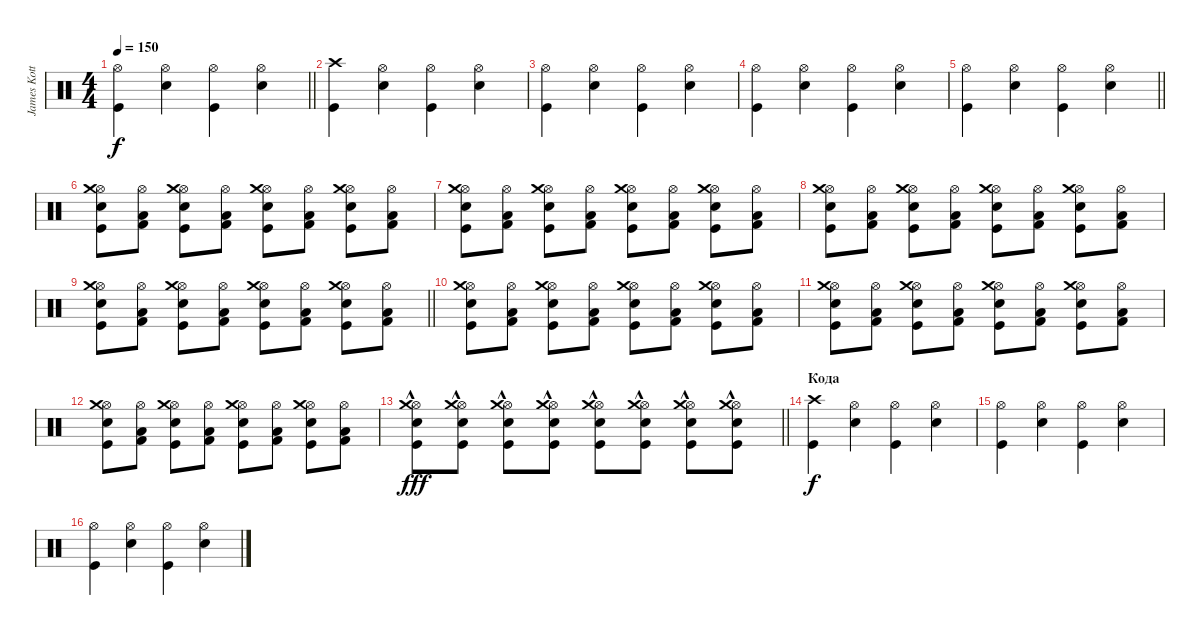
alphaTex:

\track ("James Kottak" "James Kott") {instrument percussion}
\staff {score}
\articulation defaults
\ts (4 4)
\tempo 150
\clef neutral
\barLineRight lightlight
\ks c
("Hi-Hat (open)" "Kick (hit)").4{dy f} ("Hi-Hat (open)" "Snare (hit) 2").4 ("Hi-Hat (open)" "Kick (hit)").4 ("Hi-Hat (open)" "Snare (hit) 2").4 |
("Crash high (hit)" "Kick (hit)").4 ("Hi-Hat (open)" "Snare (hit) 2").4 ("Hi-Hat (open)" "Kick (hit)").4 ("Hi-Hat (open)" "Snare (hit) 2").4 |
("Hi-Hat (open)" "Kick (hit)").4 ("Hi-Hat (open)" "Snare (hit) 2").4 ("Hi-Hat (open)" "Kick (hit)").4 ("Hi-Hat (open)" "Snare (hit) 2").4 |
("Hi-Hat (open)" "Kick (hit)").4 ("Hi-Hat (open)" "Snare (hit) 2").4 ("Hi-Hat (open)" "Kick (hit)").4 ("Hi-Hat (open)" "Snare (hit) 2").4 |
\barLineRight lightlight
("Hi-Hat (open)" "Kick (hit)").4 ("Hi-Hat (open)" "Snare (hit) 2").4 ("Hi-Hat (open)" "Kick (hit)").4 ("Hi-Hat (open)" "Snare (hit) 2").4 |
("Hi-Hat (open)" "Snare (hit) 2" "Crash medium (hit)" "Kick (hit)").8 ("Hi-Hat (open)" "Kick (hit) 2" "Low Floor Tom (hit)").8 ("Hi-Hat (open)" "Snare (hit) 2" "Crash medium (hit)" "Kick (hit)").8 ("Hi-Hat (open)" "Kick (hit) 2" "Low Floor Tom (hit)").8 ("Hi-Hat (open)" "Snare (hit) 2" "Crash medium (hit)" "Kick (hit)").8 ("Hi-Hat (open)" "Kick (hit) 2" "Low Floor Tom (hit)").8 ("Hi-Hat (open)" "Snare (hit) 2" "Crash medium (hit)" "Kick (hit)").8 ("Hi-Hat (open)" "Kick (hit) 2" "Low Floor Tom (hit)").8 |
("Hi-Hat (open)" "Snare (hit) 2" "Crash medium (hit)" "Kick (hit)").8 ("Hi-Hat (open)" "Kick (hit) 2" "Low Floor Tom (hit)").8 ("Hi-Hat (open)" "Snare (hit) 2" "Crash medium (hit)" "Kick (hit)").8 ("Hi-Hat (open)" "Kick (hit) 2" "Low Floor Tom (hit)").8 ("Hi-Hat (open)" "Snare (hit) 2" "Crash medium (hit)" "Kick (hit)").8 ("Hi-Hat (open)" "Kick (hit) 2" "Low Floor Tom (hit)").8 ("Hi-Hat (open)" "Snare (hit) 2" "Crash medium (hit)" "Kick (hit)").8 ("Hi-Hat (open)" "Kick (hit) 2" "Low Floor Tom (hit)").8 |
("Hi-Hat (open)" "Snare (hit) 2" "Crash medium (hit)" "Kick (hit)").8 ("Hi-Hat (open)" "Kick (hit) 2" "Low Floor Tom (hit)").8 ("Hi-Hat (open)" "Snare (hit) 2" "Crash medium (hit)" "Kick (hit)").8 ("Hi-Hat (open)" "Kick (hit) 2" "Low Floor Tom (hit)").8 ("Hi-Hat (open)" "Snare (hit) 2" "Crash medium (hit)" "Kick (hit)").8 ("Hi-Hat (open)" "Kick (hit) 2" "Low Floor Tom (hit)").8 ("Hi-Hat (open)" "Snare (hit) 2" "Crash medium (hit)" "Kick (hit)").8 ("Hi-Hat (open)" "Kick (hit) 2" "Low Floor Tom (hit)").8 |
\barLineRight lightlight
("Hi-Hat (open)" "Snare (hit) 2" "Crash medium (hit)" "Kick (hit)").8 ("Hi-Hat (open)" "Kick (hit) 2" "Low Floor Tom (hit)").8 ("Hi-Hat (open)" "Snare (hit) 2" "Crash medium (hit)" "Kick (hit)").8 ("Hi-Hat (open)" "Kick (hit) 2" "Low Floor Tom (hit)").8 ("Hi-Hat (open)" "Snare (hit) 2" "Crash medium (hit)" "Kick (hit)").8 ("Hi-Hat (open)" "Kick (hit) 2" "Low Floor Tom (hit)").8 ("Hi-Hat (open)" "Snare (hit) 2" "Crash medium (hit)" "Kick (hit)").8 ("Hi-Hat (open)" "Kick (hit) 2" "Low Floor Tom (hit)").8 |
("Hi-Hat (open)" "Snare (hit) 2" "Crash medium (hit)" "Kick (hit)").8 ("Hi-Hat (open)" "Kick (hit) 2" "Low Floor Tom (hit)").8 ("Hi-Hat (open)" "Snare (hit) 2" "Crash medium (hit)" "Kick (hit)").8 ("Hi-Hat (open)" "Kick (hit) 2" "Low Floor Tom (hit)").8 ("Hi-Hat (open)" "Snare (hit) 2" "Crash medium (hit)" "Kick (hit)").8 ("Hi-Hat (open)" "Kick (hit) 2" "Low Floor Tom (hit)").8 ("Hi-Hat (open)" "Snare (hit) 2" "Crash medium (hit)" "Kick (hit)").8 ("Hi-Hat (open)" "Kick (hit) 2" "Low Floor Tom (hit)").8 |
("Hi-Hat (open)" "Snare (hit) 2" "Crash medium (hit)" "Kick (hit)").8 ("Hi-Hat (open)" "Kick (hit) 2" "Low Floor Tom (hit)").8 ("Hi-Hat (open)" "Snare (hit) 2" "Crash medium (hit)" "Kick (hit)").8 ("Hi-Hat (open)" "Kick (hit) 2" "Low Floor Tom (hit)").8 ("Hi-Hat (open)" "Snare (hit) 2" "Crash medium (hit)" "Kick (hit)").8 ("Hi-Hat (open)" "Kick (hit) 2" "Low Floor Tom (hit)").8 ("Hi-Hat (open)" "Snare (hit) 2" "Crash medium (hit)" "Kick (hit)").8 ("Hi-Hat (open)" "Kick (hit) 2" "Low Floor Tom (hit)").8 |
("Hi-Hat (open)" "Snare (hit) 2" "Crash medium (hit)" "Kick (hit)").8 ("Hi-Hat (open)" "Kick (hit) 2" "Low Floor Tom (hit)").8 ("Hi-Hat (open)" "Snare (hit) 2" "Crash medium (hit)" "Kick (hit)").8 ("Hi-Hat (open)" "Kick (hit) 2" "Low Floor Tom (hit)").8 ("Hi-Hat (open)" "Snare (hit) 2" "Crash medium (hit)" "Kick (hit)").8 ("Hi-Hat (open)" "Kick (hit) 2" "Low Floor Tom (hit)").8 ("Hi-Hat (open)" "Snare (hit) 2" "Crash medium (hit)" "Kick (hit)").8 ("Hi-Hat (open)" "Kick (hit) 2" "Low Floor Tom (hit)").8 |
\barLineRight lightlight
("Hi-Hat (open)" "Snare (hit) 2"{hac} "Crash medium (hit)" "Kick (hit)").8{dy fff} ("Hi-Hat (open)" "Snare (hit) 2"{hac} "Crash medium (hit)" "Kick (hit)").8 ("Hi-Hat (open)" "Snare (hit) 2"{hac} "Crash medium (hit)" "Kick (hit)").8 ("Hi-Hat (open)" "Snare (hit) 2"{hac} "Crash medium (hit)" "Kick (hit)").8 ("Hi-Hat (open)" "Snare (hit) 2"{hac} "Crash medium (hit)" "Kick (hit)").8 ("Hi-Hat (open)" "Snare (hit) 2"{hac} "Crash medium (hit)" "Kick (hit)").8 ("Hi-Hat (open)" "Snare (hit) 2"{hac} "Crash medium (hit)" "Kick (hit)").8 ("Hi-Hat (open)" "Snare (hit) 2"{hac} "Crash medium (hit)" "Kick (hit)").8 |
\section ("" "Кода")
("Crash high (hit)" "Kick (hit)").4{dy f} ("Hi-Hat (open)" "Snare (hit) 2").4 ("Hi-Hat (open)" "Kick (hit)").4 ("Hi-Hat (open)" "Snare (hit) 2").4 |
("Hi-Hat (open)" "Kick (hit)").4 ("Hi-Hat (open)" "Snare (hit) 2").4 ("Hi-Hat (open)" "Kick (hit)").4 ("Hi-Hat (open)" "Snare (hit) 2").4 |
("Hi-Hat (open)" "Kick (hit)").4 ("Hi-Hat (open)" "Snare (hit) 2").4 ("Hi-Hat (open)" "Kick (hit)").4 ("Hi-Hat (open)" "Snare (hit) 2").4
